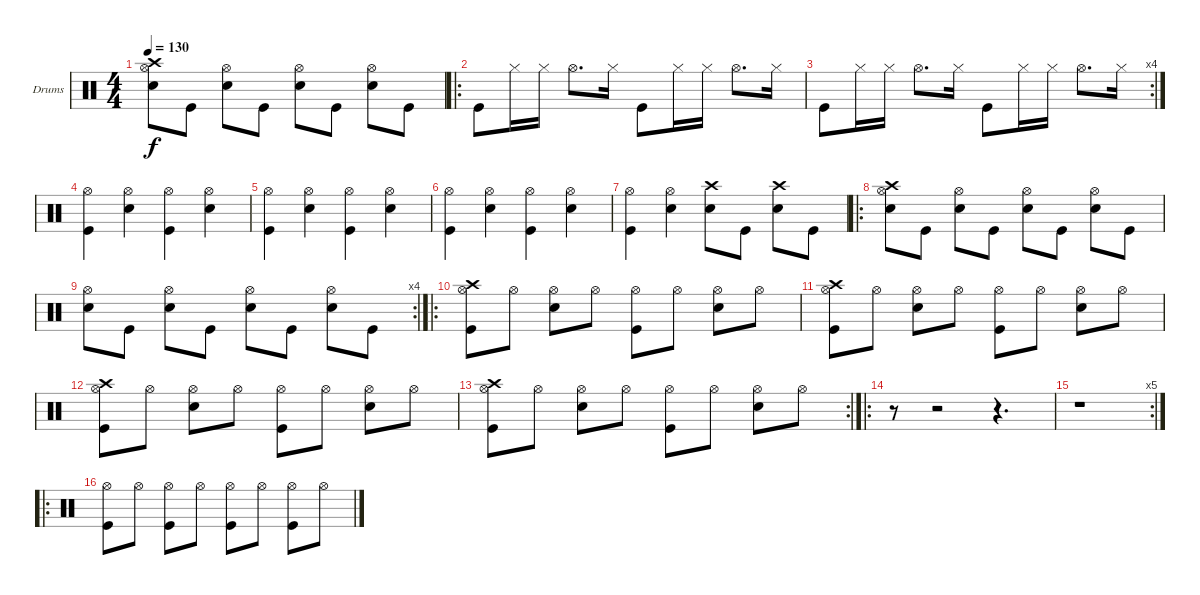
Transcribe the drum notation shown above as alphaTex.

\bracketExtendMode groupsimilarinstruments
\firstSystemTrackNameOrientation horizontal
\otherSystemsTrackNameOrientation horizontal
\track ("Drumkit" "Drums") {instrument percussion}
\staff {score}
\articulation defaults
\ts (4 4)
\tempo 130
\clef neutral
\ks c
("Snare (hit) 2" "Hi-Hat (open)" "Crash high (hit)").8{dy f} "Kick (hit)".8 ("Snare (hit) 2" "Hi-Hat (open)").8 "Kick (hit)".8 ("Snare (hit) 2" "Hi-Hat (open)").8 "Kick (hit)".8 ("Snare (hit) 2" "Hi-Hat (open)").8 "Kick (hit)".8 |
\ro "Kick (hit)".8 "Hi-Hat (closed)".16 "Hi-Hat (closed)".16 "Hi-Hat (open)".8{d} "Hi-Hat (closed)".16 "Kick (hit)".8 "Hi-Hat (closed)".16 "Hi-Hat (closed)".16 "Hi-Hat (open)".8{d} "Hi-Hat (closed)".16
|
\rc 4 "Kick (hit)".8 "Hi-Hat (closed)".16 "Hi-Hat (closed)".16 "Hi-Hat (open)".8{d} "Hi-Hat (closed)".16 "Kick (hit)".8 "Hi-Hat (closed)".16 "Hi-Hat (closed)".16 "Hi-Hat (open)".8{d} "Hi-Hat (closed)".16
|
("Kick (hit)" "Hi-Hat (open)").4 ("Snare (hit) 2" "Hi-Hat (open)").4 ("Kick (hit)" "Hi-Hat (open)").4 ("Snare (hit) 2" "Hi-Hat (open)").4 |
("Kick (hit)" "Hi-Hat (open)").4 ("Snare (hit) 2" "Hi-Hat (open)").4 ("Kick (hit)" "Hi-Hat (open)").4 ("Snare (hit) 2" "Hi-Hat (open)").4 |
("Kick (hit)" "Hi-Hat (open)").4 ("Snare (hit) 2" "Hi-Hat (open)").4 ("Kick (hit)" "Hi-Hat (open)").4 ("Snare (hit) 2" "Hi-Hat (open)").4 |
("Kick (hit)" "Hi-Hat (open)").4 ("Snare (hit) 2" "Hi-Hat (open)").4 ("Snare (hit) 2" "Crash high (hit)").8 "Kick (hit)".8 ("Snare (hit) 2" "Crash high (hit)").8 "Kick (hit)".8 |
\ro
("Snare (hit) 2" "Hi-Hat (open)" "Crash high (hit)").8 "Kick (hit)".8 ("Snare (hit) 2" "Hi-Hat (open)").8 "Kick (hit)".8 ("Snare (hit) 2" "Hi-Hat (open)").8 "Kick (hit)".8 ("Snare (hit) 2" "Hi-Hat (open)").8 "Kick (hit)".8 |
\rc 4
("Snare (hit) 2" "Hi-Hat (open)").8 "Kick (hit)".8 ("Snare (hit) 2" "Hi-Hat (open)").8 "Kick (hit)".8 ("Snare (hit) 2" "Hi-Hat (open)").8 "Kick (hit)".8 ("Snare (hit) 2" "Hi-Hat (open)").8 "Kick (hit)".8 |
\ro
("Hi-Hat (open)" "Kick (hit)" "Crash high (hit)").8 "Hi-Hat (open)".8 ("Hi-Hat (open)" "Snare (hit) 2").8 "Hi-Hat (open)".8 ("Hi-Hat (open)" "Kick (hit)").8 "Hi-Hat (open)".8 ("Hi-Hat (open)" "Snare (hit) 2").8 "Hi-Hat (open)".8 |
("Hi-Hat (open)" "Kick (hit)" "Crash high (hit)").8 "Hi-Hat (open)".8 ("Hi-Hat (open)" "Snare (hit) 2").8 "Hi-Hat (open)".8 ("Hi-Hat (open)" "Kick (hit)").8 "Hi-Hat (open)".8 ("Hi-Hat (open)" "Snare (hit) 2").8 "Hi-Hat (open)".8 |
("Hi-Hat (open)" "Kick (hit)" "Crash high (hit)").8 "Hi-Hat (open)".8 ("Hi-Hat (open)" "Snare (hit) 2").8 "Hi-Hat (open)".8 ("Hi-Hat (open)" "Kick (hit)").8 "Hi-Hat (open)".8 ("Hi-Hat (open)" "Snare (hit) 2").8 "Hi-Hat (open)".8 |
\rc 2
("Hi-Hat (open)" "Kick (hit)" "Crash high (hit)").8 "Hi-Hat (open)".8 ("Hi-Hat (open)" "Snare (hit) 2").8 "Hi-Hat (open)".8 ("Hi-Hat (open)" "Kick (hit)").8 "Hi-Hat (open)".8 ("Hi-Hat (open)" "Snare (hit) 2").8 "Hi-Hat (open)".8 |
\ro
r.8 r.2 r.4{d} |
\rc 5
r.1 |
\ro
("Hi-Hat (open)" "Kick (hit)").8 "Hi-Hat (open)".8 ("Hi-Hat (open)" "Kick (hit)").8 "Hi-Hat (open)".8 ("Hi-Hat (open)" "Kick (hit)").8 "Hi-Hat (open)".8 ("Hi-Hat (open)" "Kick (hit)").8 "Hi-Hat (open)".8
